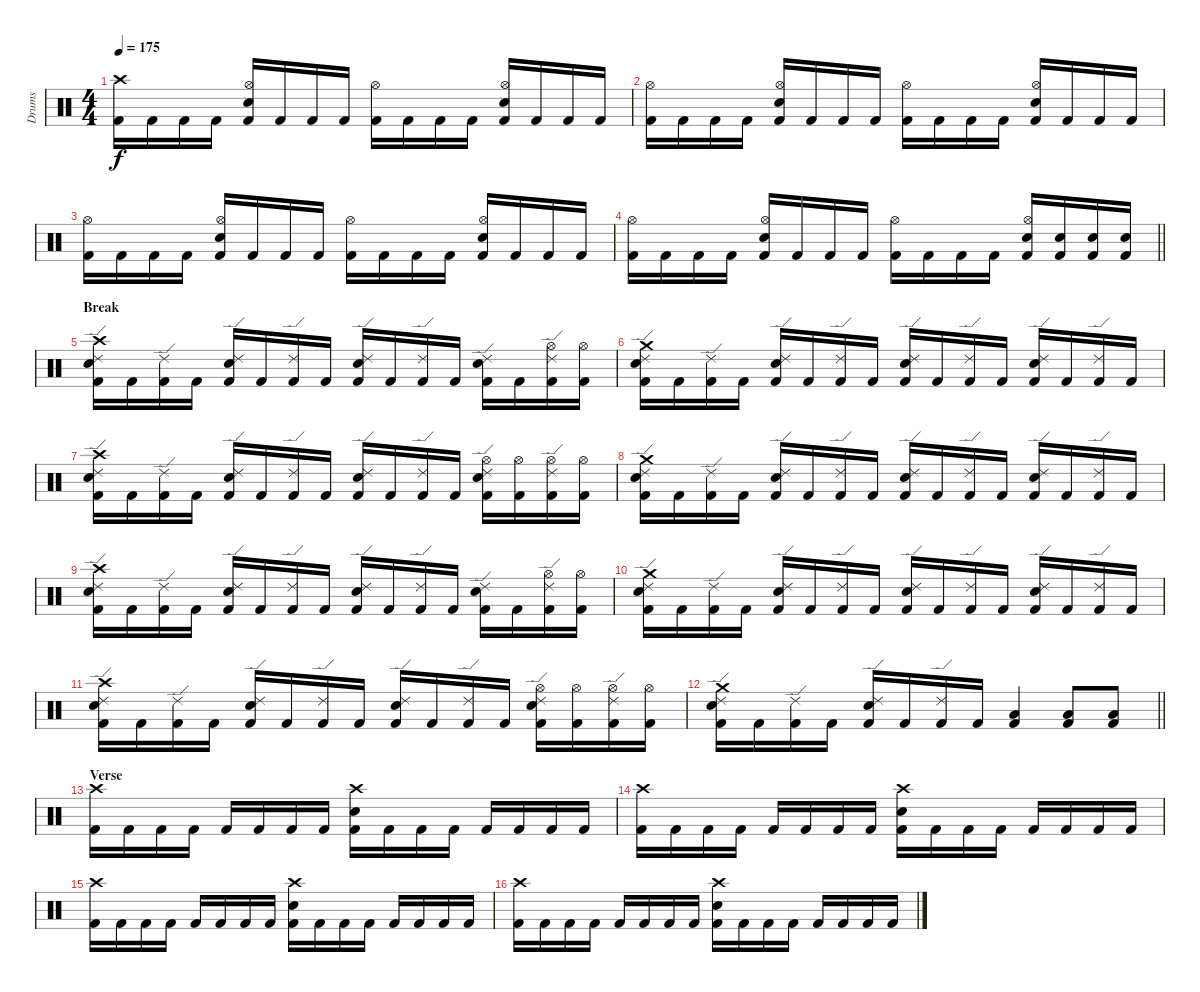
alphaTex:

\track ("Drums" "Drums") {instrument percussion}
\staff {score}
\articulation defaults
\ts (4 4)
\tempo 175
\clef neutral
\ks c
("Crash high (hit)" "Kick (hit) 2").16{dy f} "Kick (hit) 2".16 "Kick (hit) 2".16 "Kick (hit) 2".16 ("Hi-Hat (open)" "Snare (hit) 2" "Kick (hit) 2").16 "Kick (hit) 2".16 "Kick (hit) 2".16 "Kick (hit) 2".16 ("Hi-Hat (open)" "Kick (hit) 2").16 "Kick (hit) 2".16 "Kick (hit) 2".16 "Kick (hit) 2".16 ("Hi-Hat (open)" "Snare (hit) 2" "Kick (hit) 2").16 "Kick (hit) 2".16 "Kick (hit) 2".16 "Kick (hit) 2".16 |
("Hi-Hat (open)" "Kick (hit) 2").16 "Kick (hit) 2".16 "Kick (hit) 2".16 "Kick (hit) 2".16 ("Hi-Hat (open)" "Snare (hit) 2" "Kick (hit) 2").16 "Kick (hit) 2".16 "Kick (hit) 2".16 "Kick (hit) 2".16 ("Hi-Hat (open)" "Kick (hit) 2").16 "Kick (hit) 2".16 "Kick (hit) 2".16 "Kick (hit) 2".16 ("Hi-Hat (open)" "Snare (hit) 2" "Kick (hit) 2").16 "Kick (hit) 2".16 "Kick (hit) 2".16 "Kick (hit) 2".16 |
("Hi-Hat (open)" "Kick (hit) 2").16 "Kick (hit) 2".16 "Kick (hit) 2".16 "Kick (hit) 2".16 ("Hi-Hat (open)" "Snare (hit) 2" "Kick (hit) 2").16 "Kick (hit) 2".16 "Kick (hit) 2".16 "Kick (hit) 2".16 ("Hi-Hat (open)" "Kick (hit) 2").16 "Kick (hit) 2".16 "Kick (hit) 2".16 "Kick (hit) 2".16 ("Hi-Hat (open)" "Snare (hit) 2" "Kick (hit) 2").16 "Kick (hit) 2".16 "Kick (hit) 2".16 "Kick (hit) 2".16 |
\barLineRight lightlight
("Hi-Hat (open)" "Kick (hit) 2").16 "Kick (hit) 2".16 "Kick (hit) 2".16 "Kick (hit) 2".16 ("Hi-Hat (open)" "Snare (hit) 2" "Kick (hit) 2").16 "Kick (hit) 2".16 "Kick (hit) 2".16 "Kick (hit) 2".16 ("Hi-Hat (open)" "Kick (hit) 2").16 "Kick (hit) 2".16 "Kick (hit) 2".16 "Kick (hit) 2".16 ("Hi-Hat (open)" "Snare (hit) 2" "Kick (hit) 2").16 ("Snare (hit) 2" "Kick (hit) 2").16 ("Snare (hit) 2" "Kick (hit) 2").16 ("Snare (hit) 2" "Kick (hit) 2").16 |
\section ("" "Break")
("Ride (edge) 2" "Crash high (hit)" "Snare (hit) 2" "Kick (hit) 2").16 "Kick (hit) 2".16 ("Ride (edge) 2" "Kick (hit) 2").16 "Kick (hit) 2".16 ("Ride (edge) 2" "Snare (hit) 2" "Kick (hit) 2").16 "Kick (hit) 2".16 ("Ride (edge) 2" "Kick (hit) 2").16 "Kick (hit) 2".16 ("Ride (edge) 2" "Snare (hit) 2" "Kick (hit) 2").16 "Kick (hit) 2".16 ("Ride (edge) 2" "Kick (hit) 2").16 "Kick (hit) 2".16 ("Ride (edge) 2" "Snare (hit) 2" "Kick (hit) 2").16 "Kick (hit) 2".16 ("Ride (edge) 2" "Hi-Hat (open)" "Kick (hit) 2").16 ("Hi-Hat (open)" "Kick (hit) 2").16 |
("Ride (edge) 2" "Crash medium (hit)" "Snare (hit) 2" "Kick (hit) 2").16 "Kick (hit) 2".16 ("Ride (edge) 2" "Kick (hit) 2").16 "Kick (hit) 2".16 ("Ride (edge) 2" "Snare (hit) 2" "Kick (hit) 2").16 "Kick (hit) 2".16 ("Ride (edge) 2" "Kick (hit) 2").16 "Kick (hit) 2".16 ("Ride (edge) 2" "Snare (hit) 2" "Kick (hit) 2").16 "Kick (hit) 2".16 ("Ride (edge) 2" "Kick (hit) 2").16 "Kick (hit) 2".16 ("Ride (edge) 2" "Snare (hit) 2" "Kick (hit) 2").16 "Kick (hit) 2".16 ("Ride (edge) 2" "Kick (hit) 2").16 "Kick (hit) 2".16 |
("Ride (edge) 2" "Crash high (hit)" "Snare (hit) 2" "Kick (hit) 2").16 "Kick (hit) 2".16 ("Ride (edge) 2" "Kick (hit) 2").16 "Kick (hit) 2".16 ("Ride (edge) 2" "Snare (hit) 2" "Kick (hit) 2").16 "Kick (hit) 2".16 ("Ride (edge) 2" "Kick (hit) 2").16 "Kick (hit) 2".16 ("Ride (edge) 2" "Snare (hit) 2" "Kick (hit) 2").16 "Kick (hit) 2".16 ("Ride (edge) 2" "Kick (hit) 2").16 "Kick (hit) 2".16 ("Ride (edge) 2" "Hi-Hat (open)" "Snare (hit) 2" "Kick (hit) 2").16 ("Hi-Hat (open)" "Kick (hit) 2").16 ("Ride (edge) 2" "Hi-Hat (open)" "Kick (hit) 2").16 ("Hi-Hat (open)" "Kick (hit) 2").16 |
("Ride (edge) 2" "Crash medium (hit)" "Snare (hit) 2" "Kick (hit) 2").16 "Kick (hit) 2".16 ("Ride (edge) 2" "Kick (hit) 2").16 "Kick (hit) 2".16 ("Ride (edge) 2" "Snare (hit) 2" "Kick (hit) 2").16 "Kick (hit) 2".16 ("Ride (edge) 2" "Kick (hit) 2").16 "Kick (hit) 2".16 ("Ride (edge) 2" "Snare (hit) 2" "Kick (hit) 2").16 "Kick (hit) 2".16 ("Ride (edge) 2" "Kick (hit) 2").16 "Kick (hit) 2".16 ("Ride (edge) 2" "Snare (hit) 2" "Kick (hit) 2").16 "Kick (hit) 2".16 ("Ride (edge) 2" "Kick (hit) 2").16 "Kick (hit) 2".16 |
("Ride (edge) 2" "Crash high (hit)" "Snare (hit) 2" "Kick (hit) 2").16 "Kick (hit) 2".16 ("Ride (edge) 2" "Kick (hit) 2").16 "Kick (hit) 2".16 ("Ride (edge) 2" "Snare (hit) 2" "Kick (hit) 2").16 "Kick (hit) 2".16 ("Ride (edge) 2" "Kick (hit) 2").16 "Kick (hit) 2".16 ("Ride (edge) 2" "Snare (hit) 2" "Kick (hit) 2").16 "Kick (hit) 2".16 ("Ride (edge) 2" "Kick (hit) 2").16 "Kick (hit) 2".16 ("Ride (edge) 2" "Snare (hit) 2" "Kick (hit) 2").16 "Kick (hit) 2".16 ("Ride (edge) 2" "Hi-Hat (open)" "Kick (hit) 2").16 ("Hi-Hat (open)" "Kick (hit) 2").16 |
("Ride (edge) 2" "Crash medium (hit)" "Snare (hit) 2" "Kick (hit) 2").16 "Kick (hit) 2".16 ("Ride (edge) 2" "Kick (hit) 2").16 "Kick (hit) 2".16 ("Ride (edge) 2" "Snare (hit) 2" "Kick (hit) 2").16 "Kick (hit) 2".16 ("Ride (edge) 2" "Kick (hit) 2").16 "Kick (hit) 2".16 ("Ride (edge) 2" "Snare (hit) 2" "Kick (hit) 2").16 "Kick (hit) 2".16 ("Ride (edge) 2" "Kick (hit) 2").16 "Kick (hit) 2".16 ("Ride (edge) 2" "Snare (hit) 2" "Kick (hit) 2").16 "Kick (hit) 2".16 ("Ride (edge) 2" "Kick (hit) 2").16 "Kick (hit) 2".16 |
("Ride (edge) 2" "Crash high (hit)" "Snare (hit) 2" "Kick (hit) 2").16 "Kick (hit) 2".16 ("Ride (edge) 2" "Kick (hit) 2").16 "Kick (hit) 2".16 ("Ride (edge) 2" "Snare (hit) 2" "Kick (hit) 2").16 "Kick (hit) 2".16 ("Ride (edge) 2" "Kick (hit) 2").16 "Kick (hit) 2".16 ("Ride (edge) 2" "Snare (hit) 2" "Kick (hit) 2").16 "Kick (hit) 2".16 ("Ride (edge) 2" "Kick (hit) 2").16 "Kick (hit) 2".16 ("Ride (edge) 2" "Hi-Hat (open)" "Snare (hit) 2" "Kick (hit) 2").16 ("Hi-Hat (open)" "Kick (hit) 2").16 ("Ride (edge) 2" "Hi-Hat (open)" "Kick (hit) 2").16 ("Hi-Hat (open)" "Kick (hit) 2").16 |
\barLineRight lightlight
("Ride (edge) 2" "Crash medium (hit)" "Snare (hit) 2" "Kick (hit) 2").16 "Kick (hit) 2".16 ("Ride (edge) 2" "Kick (hit) 2").16 "Kick (hit) 2".16 ("Ride (edge) 2" "Snare (hit) 2" "Kick (hit) 2").16 "Kick (hit) 2".16 ("Ride (edge) 2" "Kick (hit) 2").16 "Kick (hit) 2".16 ("Low Floor Tom (hit)" "Kick (hit) 2").4 ("Low Floor Tom (hit)" "Kick (hit) 2").8 ("Low Floor Tom (hit)" "Kick (hit) 2").8 |
\section ("" "Verse")
("Crash high (hit)" "Kick (hit) 2").16 "Kick (hit) 2".16 "Kick (hit) 2".16 "Kick (hit) 2".16 "Kick (hit) 2".16 "Kick (hit) 2".16 "Kick (hit) 2".16 "Kick (hit) 2".16 ("Crash high (hit)" "Snare (hit) 2" "Kick (hit) 2").16 "Kick (hit) 2".16 "Kick (hit) 2".16 "Kick (hit) 2".16 "Kick (hit) 2".16 "Kick (hit) 2".16 "Kick (hit) 2".16 "Kick (hit) 2".16 |
("Crash high (hit)" "Kick (hit) 2").16 "Kick (hit) 2".16 "Kick (hit) 2".16 "Kick (hit) 2".16 "Kick (hit) 2".16 "Kick (hit) 2".16 "Kick (hit) 2".16 "Kick (hit) 2".16 ("Crash high (hit)" "Snare (hit) 2" "Kick (hit) 2").16 "Kick (hit) 2".16 "Kick (hit) 2".16 "Kick (hit) 2".16 "Kick (hit) 2".16 "Kick (hit) 2".16 "Kick (hit) 2".16 "Kick (hit) 2".16 |
("Crash high (hit)" "Kick (hit) 2").16 "Kick (hit) 2".16 "Kick (hit) 2".16 "Kick (hit) 2".16 "Kick (hit) 2".16 "Kick (hit) 2".16 "Kick (hit) 2".16 "Kick (hit) 2".16 ("Crash high (hit)" "Snare (hit) 2" "Kick (hit) 2").16 "Kick (hit) 2".16 "Kick (hit) 2".16 "Kick (hit) 2".16 "Kick (hit) 2".16 "Kick (hit) 2".16 "Kick (hit) 2".16 "Kick (hit) 2".16 |
("Crash high (hit)" "Kick (hit) 2").16 "Kick (hit) 2".16 "Kick (hit) 2".16 "Kick (hit) 2".16 "Kick (hit) 2".16 "Kick (hit) 2".16 "Kick (hit) 2".16 "Kick (hit) 2".16 ("Crash high (hit)" "Snare (hit) 2" "Kick (hit) 2").16 "Kick (hit) 2".16 "Kick (hit) 2".16 "Kick (hit) 2".16 "Kick (hit) 2".16 "Kick (hit) 2".16 "Kick (hit) 2".16 "Kick (hit) 2".16
